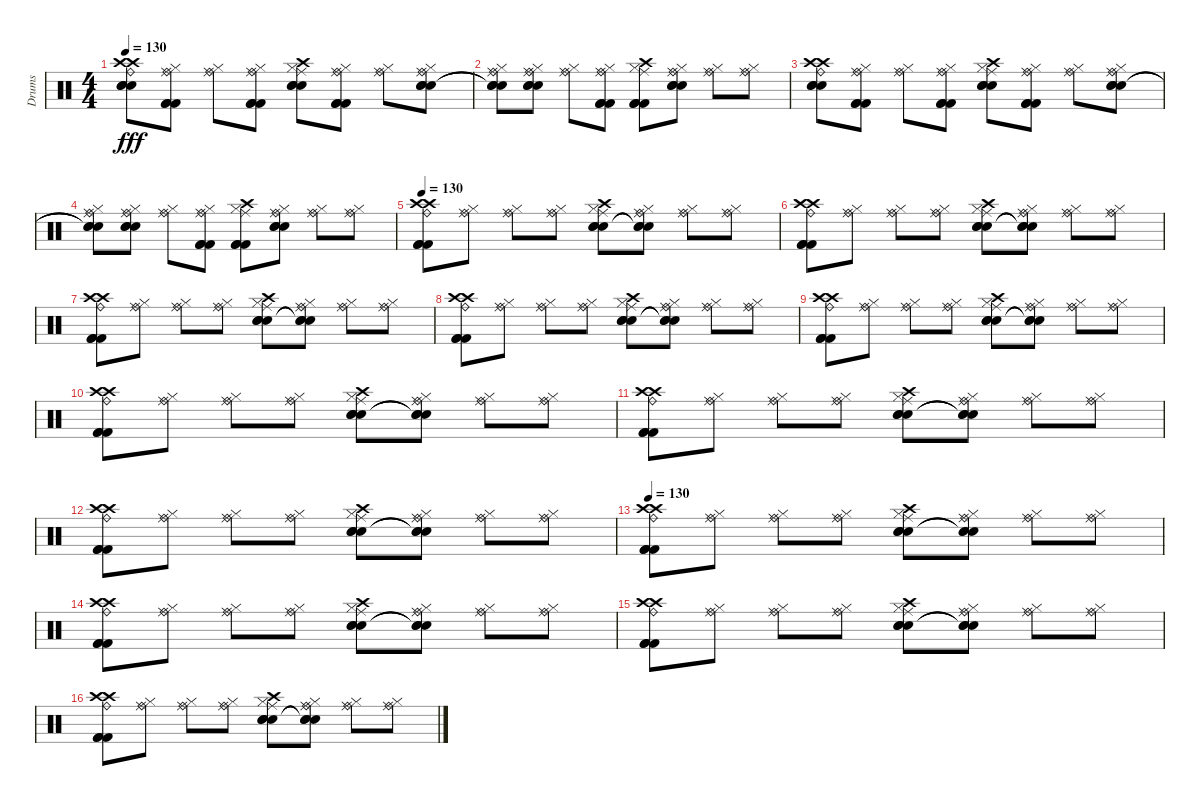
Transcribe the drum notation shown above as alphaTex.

\track ("Drums" "Drums") {instrument percussion}
\staff {score}
\articulation defaults
\ts (4 4)
\tempo 130
\clef neutral
\ks c
("Ride (bell)" "Crash high (hit)" "Crash high (hit)" "Snare (hit) 2" "Snare (hit) 2" "Snare (hit) 2").8{dy fff} ("Ride (bell)" "Ride (middle)" "Hi-Hat (closed)" "Kick (hit) 2" "Kick (hit) 2" "Kick (hit) 2").8 ("Ride (bell)" "Ride (middle)" "Hi-Hat (closed)").8 ("Ride (bell)" "Ride (middle)" "Hi-Hat (closed)" "Kick (hit) 2" "Kick (hit) 2" "Kick (hit) 2").8 ("Crash high (hit)" "Ride (middle)" "Hi-Hat (closed)" "Snare (hit) 2" "Snare (hit) 2" "Snare (hit) 2").8 ("Ride (bell)" "Ride (middle)" "Hi-Hat (closed)" "Kick (hit) 2" "Kick (hit) 2" "Kick (hit) 2").8 ("Ride (bell)" "Ride (middle)" "Hi-Hat (closed)").8 ("Ride (bell)" "Ride (middle)" "Hi-Hat (closed)" "Snare (hit) 2" "Snare (hit) 2" "Snare (hit) 2").8 |
("Ride (bell)" "Ride (middle)" "Hi-Hat (closed)" "Snare (hit) 2"{t} "Snare (hit) 2"{t} "Snare (hit) 2"{t}).8 ("Ride (bell)" "Ride (middle)" "Hi-Hat (closed)" "Snare (hit) 2" "Snare (hit) 2" "Snare (hit) 2").8 ("Ride (bell)" "Ride (middle)" "Hi-Hat (closed)").8 ("Ride (bell)" "Ride (middle)" "Hi-Hat (closed)" "Kick (hit) 2" "Kick (hit) 2" "Kick (hit) 2").8 ("Crash high (hit)" "Ride (middle)" "Hi-Hat (closed)" "Kick (hit) 2" "Kick (hit) 2" "Kick (hit) 2").8 ("Ride (bell)" "Ride (middle)" "Hi-Hat (closed)" "Snare (hit) 2" "Snare (hit) 2" "Snare (hit) 2").8 ("Ride (bell)" "Ride (middle)" "Hi-Hat (closed)").8 ("Ride (bell)" "Ride (middle)" "Hi-Hat (closed)").8 |
("Ride (bell)" "Crash high (hit)" "Crash high (hit)" "Snare (hit) 2" "Snare (hit) 2" "Snare (hit) 2").8 ("Ride (bell)" "Ride (middle)" "Hi-Hat (closed)" "Kick (hit) 2" "Kick (hit) 2" "Kick (hit) 2").8 ("Ride (bell)" "Ride (middle)" "Hi-Hat (closed)").8 ("Ride (bell)" "Ride (middle)" "Hi-Hat (closed)" "Kick (hit) 2" "Kick (hit) 2" "Kick (hit) 2").8 ("Crash high (hit)" "Ride (middle)" "Hi-Hat (closed)" "Snare (hit) 2" "Snare (hit) 2" "Snare (hit) 2").8 ("Ride (bell)" "Ride (middle)" "Hi-Hat (closed)" "Kick (hit) 2" "Kick (hit) 2" "Kick (hit) 2").8 ("Ride (bell)" "Ride (middle)" "Hi-Hat (closed)").8 ("Ride (bell)" "Ride (middle)" "Hi-Hat (closed)" "Snare (hit) 2" "Snare (hit) 2" "Snare (hit) 2").8 |
("Ride (bell)" "Ride (middle)" "Hi-Hat (closed)" "Snare (hit) 2"{t} "Snare (hit) 2"{t} "Snare (hit) 2"{t}).8 ("Ride (bell)" "Ride (middle)" "Hi-Hat (closed)" "Snare (hit) 2" "Snare (hit) 2" "Snare (hit) 2").8 ("Ride (bell)" "Ride (middle)" "Hi-Hat (closed)").8 ("Ride (bell)" "Ride (middle)" "Hi-Hat (closed)" "Kick (hit) 2" "Kick (hit) 2" "Kick (hit) 2").8 ("Crash high (hit)" "Ride (middle)" "Hi-Hat (closed)" "Kick (hit) 2" "Kick (hit) 2" "Kick (hit) 2").8 ("Ride (bell)" "Ride (middle)" "Hi-Hat (closed)" "Snare (hit) 2" "Snare (hit) 2" "Snare (hit) 2").8 ("Ride (bell)" "Ride (middle)" "Hi-Hat (closed)").8 ("Ride (bell)" "Ride (middle)" "Hi-Hat (closed)").8 |
\tempo 130
("Ride (bell)" "Crash high (hit)" "Crash high (hit)" "Kick (hit) 2" "Kick (hit) 2" "Kick (hit) 2").8 ("Ride (bell)" "Ride (middle)" "Hi-Hat (closed)").8 ("Ride (bell)" "Ride (middle)" "Hi-Hat (closed)").8 ("Ride (bell)" "Ride (middle)" "Hi-Hat (closed)").8 ("Crash high (hit)" "Ride (middle)" "Hi-Hat (closed)" "Snare (hit) 2" "Snare (hit) 2" "Snare (hit) 2").8 ("Ride (bell)" "Ride (middle)" "Hi-Hat (closed)" "Snare (hit)"{t} "Snare (hit)"{t} "Snare (hit)"{t}).8 ("Ride (bell)" "Ride (middle)" "Hi-Hat (closed)").8 ("Ride (bell)" "Ride (middle)" "Hi-Hat (closed)").8 |
("Ride (bell)" "Crash high (hit)" "Crash high (hit)" "Kick (hit) 2" "Kick (hit) 2" "Kick (hit) 2").8 ("Ride (bell)" "Ride (middle)" "Hi-Hat (closed)").8 ("Ride (bell)" "Ride (middle)" "Hi-Hat (closed)").8 ("Ride (bell)" "Ride (middle)" "Hi-Hat (closed)").8 ("Crash high (hit)" "Ride (middle)" "Hi-Hat (closed)" "Snare (hit) 2" "Snare (hit) 2" "Snare (hit) 2").8 ("Ride (bell)" "Ride (middle)" "Hi-Hat (closed)" "Snare (hit)"{t} "Snare (hit)"{t} "Snare (hit)"{t}).8 ("Ride (bell)" "Ride (middle)" "Hi-Hat (closed)").8 ("Ride (bell)" "Ride (middle)" "Hi-Hat (closed)").8 |
("Ride (bell)" "Crash high (hit)" "Crash high (hit)" "Kick (hit) 2" "Kick (hit) 2" "Kick (hit) 2").8 ("Ride (bell)" "Ride (middle)" "Hi-Hat (closed)").8 ("Ride (bell)" "Ride (middle)" "Hi-Hat (closed)").8 ("Ride (bell)" "Ride (middle)" "Hi-Hat (closed)").8 ("Crash high (hit)" "Ride (middle)" "Hi-Hat (closed)" "Snare (hit) 2" "Snare (hit) 2" "Snare (hit) 2").8 ("Ride (bell)" "Ride (middle)" "Hi-Hat (closed)" "Snare (hit)"{t} "Snare (hit)"{t} "Snare (hit)"{t}).8 ("Ride (bell)" "Ride (middle)" "Hi-Hat (closed)").8 ("Ride (bell)" "Ride (middle)" "Hi-Hat (closed)").8 |
("Ride (bell)" "Crash high (hit)" "Crash high (hit)" "Kick (hit) 2" "Kick (hit) 2" "Kick (hit) 2").8 ("Ride (bell)" "Ride (middle)" "Hi-Hat (closed)").8 ("Ride (bell)" "Ride (middle)" "Hi-Hat (closed)").8 ("Ride (bell)" "Ride (middle)" "Hi-Hat (closed)").8 ("Crash high (hit)" "Ride (middle)" "Hi-Hat (closed)" "Snare (hit) 2" "Snare (hit) 2" "Snare (hit) 2").8 ("Ride (bell)" "Ride (middle)" "Hi-Hat (closed)" "Snare (hit)"{t} "Snare (hit)"{t} "Snare (hit)"{t}).8 ("Ride (bell)" "Ride (middle)" "Hi-Hat (closed)").8 ("Ride (bell)" "Ride (middle)" "Hi-Hat (closed)").8 |
("Ride (bell)" "Crash high (hit)" "Crash high (hit)" "Kick (hit) 2" "Kick (hit) 2" "Kick (hit) 2").8 ("Ride (bell)" "Ride (middle)" "Hi-Hat (closed)").8 ("Ride (bell)" "Ride (middle)" "Hi-Hat (closed)").8 ("Ride (bell)" "Ride (middle)" "Hi-Hat (closed)").8 ("Crash high (hit)" "Ride (middle)" "Hi-Hat (closed)" "Snare (hit) 2" "Snare (hit) 2" "Snare (hit) 2").8 ("Ride (bell)" "Ride (middle)" "Hi-Hat (closed)" "Snare (hit)"{t} "Snare (hit)"{t} "Snare (hit)"{t}).8 ("Ride (bell)" "Ride (middle)" "Hi-Hat (closed)").8 ("Ride (bell)" "Ride (middle)" "Hi-Hat (closed)").8 |
("Ride (bell)" "Crash high (hit)" "Crash high (hit)" "Kick (hit) 2" "Kick (hit) 2" "Kick (hit) 2").8 ("Ride (bell)" "Ride (middle)" "Hi-Hat (closed)").8 ("Ride (bell)" "Ride (middle)" "Hi-Hat (closed)").8 ("Ride (bell)" "Ride (middle)" "Hi-Hat (closed)").8 ("Crash high (hit)" "Ride (middle)" "Hi-Hat (closed)" "Snare (hit) 2" "Snare (hit) 2" "Snare (hit) 2").8 ("Ride (bell)" "Ride (middle)" "Hi-Hat (closed)" "Snare (hit)"{t} "Snare (hit)"{t} "Snare (hit)"{t}).8 ("Ride (bell)" "Ride (middle)" "Hi-Hat (closed)").8 ("Ride (bell)" "Ride (middle)" "Hi-Hat (closed)").8 |
("Ride (bell)" "Crash high (hit)" "Crash high (hit)" "Kick (hit) 2" "Kick (hit) 2" "Kick (hit) 2").8 ("Ride (bell)" "Ride (middle)" "Hi-Hat (closed)").8 ("Ride (bell)" "Ride (middle)" "Hi-Hat (closed)").8 ("Ride (bell)" "Ride (middle)" "Hi-Hat (closed)").8 ("Crash high (hit)" "Ride (middle)" "Hi-Hat (closed)" "Snare (hit) 2" "Snare (hit) 2" "Snare (hit) 2").8 ("Ride (bell)" "Ride (middle)" "Hi-Hat (closed)" "Snare (hit)"{t} "Snare (hit)"{t} "Snare (hit)"{t}).8 ("Ride (bell)" "Ride (middle)" "Hi-Hat (closed)").8 ("Ride (bell)" "Ride (middle)" "Hi-Hat (closed)").8 |
("Ride (bell)" "Crash high (hit)" "Crash high (hit)" "Kick (hit) 2" "Kick (hit) 2" "Kick (hit) 2").8 ("Ride (bell)" "Ride (middle)" "Hi-Hat (closed)").8 ("Ride (bell)" "Ride (middle)" "Hi-Hat (closed)").8 ("Ride (bell)" "Ride (middle)" "Hi-Hat (closed)").8 ("Crash high (hit)" "Ride (middle)" "Hi-Hat (closed)" "Snare (hit) 2" "Snare (hit) 2" "Snare (hit) 2").8 ("Ride (bell)" "Ride (middle)" "Hi-Hat (closed)" "Snare (hit)"{t} "Snare (hit)"{t} "Snare (hit)"{t}).8 ("Ride (bell)" "Ride (middle)" "Hi-Hat (closed)").8 ("Ride (bell)" "Ride (middle)" "Hi-Hat (closed)").8 |
\tempo 130
("Ride (bell)" "Crash high (hit)" "Crash high (hit)" "Kick (hit) 2" "Kick (hit) 2" "Kick (hit) 2").8 ("Ride (bell)" "Ride (middle)" "Hi-Hat (closed)").8 ("Ride (bell)" "Ride (middle)" "Hi-Hat (closed)").8 ("Ride (bell)" "Ride (middle)" "Hi-Hat (closed)").8 ("Crash high (hit)" "Ride (middle)" "Hi-Hat (closed)" "Snare (hit) 2" "Snare (hit) 2" "Snare (hit) 2").8 ("Ride (bell)" "Ride (middle)" "Hi-Hat (closed)" "Snare (hit)"{t} "Snare (hit)"{t} "Snare (hit)"{t}).8 ("Ride (bell)" "Ride (middle)" "Hi-Hat (closed)").8 ("Ride (bell)" "Ride (middle)" "Hi-Hat (closed)").8 |
("Ride (bell)" "Crash high (hit)" "Crash high (hit)" "Kick (hit) 2" "Kick (hit) 2" "Kick (hit) 2").8 ("Ride (bell)" "Ride (middle)" "Hi-Hat (closed)").8 ("Ride (bell)" "Ride (middle)" "Hi-Hat (closed)").8 ("Ride (bell)" "Ride (middle)" "Hi-Hat (closed)").8 ("Crash high (hit)" "Ride (middle)" "Hi-Hat (closed)" "Snare (hit) 2" "Snare (hit) 2" "Snare (hit) 2").8 ("Ride (bell)" "Ride (middle)" "Hi-Hat (closed)" "Snare (hit)"{t} "Snare (hit)"{t} "Snare (hit)"{t}).8 ("Ride (bell)" "Ride (middle)" "Hi-Hat (closed)").8 ("Ride (bell)" "Ride (middle)" "Hi-Hat (closed)").8 |
("Ride (bell)" "Crash high (hit)" "Crash high (hit)" "Kick (hit) 2" "Kick (hit) 2" "Kick (hit) 2").8 ("Ride (bell)" "Ride (middle)" "Hi-Hat (closed)").8 ("Ride (bell)" "Ride (middle)" "Hi-Hat (closed)").8 ("Ride (bell)" "Ride (middle)" "Hi-Hat (closed)").8 ("Crash high (hit)" "Ride (middle)" "Hi-Hat (closed)" "Snare (hit) 2" "Snare (hit) 2" "Snare (hit) 2").8 ("Ride (bell)" "Ride (middle)" "Hi-Hat (closed)" "Snare (hit)"{t} "Snare (hit)"{t} "Snare (hit)"{t}).8 ("Ride (bell)" "Ride (middle)" "Hi-Hat (closed)").8 ("Ride (bell)" "Ride (middle)" "Hi-Hat (closed)").8 |
("Ride (bell)" "Crash high (hit)" "Crash high (hit)" "Kick (hit) 2" "Kick (hit) 2" "Kick (hit) 2").8 ("Ride (bell)" "Ride (middle)" "Hi-Hat (closed)").8 ("Ride (bell)" "Ride (middle)" "Hi-Hat (closed)").8 ("Ride (bell)" "Ride (middle)" "Hi-Hat (closed)").8 ("Crash high (hit)" "Ride (middle)" "Hi-Hat (closed)" "Snare (hit) 2" "Snare (hit) 2" "Snare (hit) 2").8 ("Ride (bell)" "Ride (middle)" "Hi-Hat (closed)" "Snare (hit)"{t} "Snare (hit)"{t} "Snare (hit)"{t}).8 ("Ride (bell)" "Ride (middle)" "Hi-Hat (closed)").8 ("Ride (bell)" "Ride (middle)" "Hi-Hat (closed)").8
